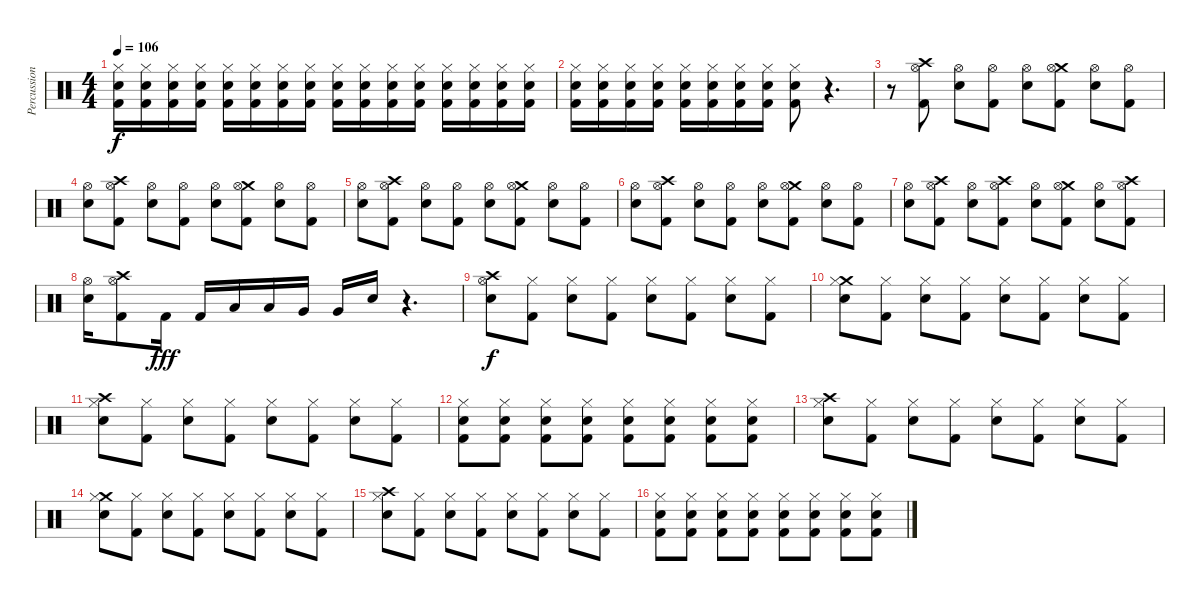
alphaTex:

\track ("Percussion" "Percussion") {instrument percussion}
\staff {score}
\articulation defaults
\ts (4 4)
\tempo 106
\clef neutral
\ks c
("Hi-Hat (closed)" "Electric Snare (hit)" "Kick (hit) 2").16{dy f volume 4} ("Hi-Hat (closed)" "Electric Snare (hit)" "Kick (hit) 2").16{volume 13} ("Hi-Hat (closed)" "Electric Snare (hit)" "Kick (hit) 2").16 ("Hi-Hat (closed)" "Electric Snare (hit)" "Kick (hit) 2").16 ("Hi-Hat (closed)" "Electric Snare (hit)" "Kick (hit) 2").16 ("Hi-Hat (closed)" "Electric Snare (hit)" "Kick (hit) 2").16 ("Hi-Hat (closed)" "Electric Snare (hit)" "Kick (hit) 2").16 ("Hi-Hat (closed)" "Electric Snare (hit)" "Kick (hit) 2").16 ("Hi-Hat (closed)" "Electric Snare (hit)" "Kick (hit) 2").16 ("Hi-Hat (closed)" "Electric Snare (hit)" "Kick (hit) 2").16 ("Hi-Hat (closed)" "Electric Snare (hit)" "Kick (hit) 2").16 ("Hi-Hat (closed)" "Electric Snare (hit)" "Kick (hit) 2").16 ("Hi-Hat (closed)" "Electric Snare (hit)" "Kick (hit) 2").16 ("Hi-Hat (closed)" "Electric Snare (hit)" "Kick (hit) 2").16 ("Hi-Hat (closed)" "Electric Snare (hit)" "Kick (hit) 2").16 ("Hi-Hat (closed)" "Electric Snare (hit)" "Kick (hit) 2").16 |
("Hi-Hat (closed)" "Electric Snare (hit)" "Kick (hit) 2").16 ("Hi-Hat (closed)" "Electric Snare (hit)" "Kick (hit) 2").16 ("Hi-Hat (closed)" "Electric Snare (hit)" "Kick (hit) 2").16 ("Hi-Hat (closed)" "Electric Snare (hit)" "Kick (hit) 2").16 ("Hi-Hat (closed)" "Electric Snare (hit)" "Kick (hit) 2").16 ("Hi-Hat (closed)" "Electric Snare (hit)" "Kick (hit) 2").16 ("Hi-Hat (closed)" "Electric Snare (hit)" "Kick (hit) 2").16 ("Hi-Hat (closed)" "Electric Snare (hit)" "Kick (hit) 2").16 ("Hi-Hat (closed)" "Electric Snare (hit)" "Kick (hit) 2").8 r.4{d} |
r.8 ("Crash high (hit)" "Hi-Hat (open)" "Kick (hit) 2").8 ("Hi-Hat (open)" "Electric Snare (hit)").8 ("Hi-Hat (open)" "Kick (hit) 2").8 ("Hi-Hat (open)" "Electric Snare (hit)").8 ("Crash medium (hit)" "Hi-Hat (open)" "Kick (hit) 2").8 ("Hi-Hat (open)" "Electric Snare (hit)").8 ("Hi-Hat (open)" "Kick (hit) 2").8 |
("Hi-Hat (open)" "Electric Snare (hit)").8 ("Crash high (hit)" "Hi-Hat (open)" "Kick (hit) 2").8 ("Hi-Hat (open)" "Electric Snare (hit)").8 ("Hi-Hat (open)" "Kick (hit) 2").8 ("Hi-Hat (open)" "Electric Snare (hit)").8 ("Crash medium (hit)" "Hi-Hat (open)" "Kick (hit) 2").8 ("Hi-Hat (open)" "Electric Snare (hit)").8 ("Hi-Hat (open)" "Kick (hit) 2").8 |
("Hi-Hat (open)" "Electric Snare (hit)").8 ("Crash high (hit)" "Hi-Hat (open)" "Kick (hit) 2").8 ("Hi-Hat (open)" "Electric Snare (hit)").8 ("Hi-Hat (open)" "Kick (hit) 2").8 ("Hi-Hat (open)" "Electric Snare (hit)").8 ("Crash medium (hit)" "Hi-Hat (open)" "Kick (hit) 2").8 ("Hi-Hat (open)" "Electric Snare (hit)").8 ("Hi-Hat (open)" "Kick (hit) 2").8 |
("Hi-Hat (open)" "Electric Snare (hit)").8 ("Crash high (hit)" "Hi-Hat (open)" "Kick (hit) 2").8 ("Hi-Hat (open)" "Electric Snare (hit)").8 ("Hi-Hat (open)" "Kick (hit) 2").8 ("Hi-Hat (open)" "Electric Snare (hit)").8 ("Crash medium (hit)" "Hi-Hat (open)" "Kick (hit) 2").8 ("Hi-Hat (open)" "Electric Snare (hit)").8 ("Hi-Hat (open)" "Kick (hit) 2").8 |
("Hi-Hat (open)" "Electric Snare (hit)").8 ("Crash high (hit)" "Hi-Hat (open)" "Kick (hit) 2").8 ("Hi-Hat (open)" "Electric Snare (hit)").8 ("Crash high (hit)" "Hi-Hat (open)" "Kick (hit) 2").8 ("Hi-Hat (open)" "Electric Snare (hit)").8 ("Crash medium (hit)" "Hi-Hat (open)" "Kick (hit) 2").8 ("Hi-Hat (open)" "Electric Snare (hit)").8 ("Crash high (hit)" "Hi-Hat (open)" "Kick (hit) 2").8 |
("Hi-Hat (open)" "Electric Snare (hit)").16 ("Crash high (hit)" "Hi-Hat (open)" "Kick (hit) 2").8 "Kick (hit) 2".16{dy fff} "Kick (hit) 2".16 "Low Floor Tom (hit)".16 "Low Floor Tom (hit)".16 "Very Low Tom (hit)".16 "Very Low Tom (hit)".16 "Electric Snare (hit)".16 r.4{d} |
("Crash high (hit)" "Hi-Hat (open)" "Electric Snare (hit)").8{dy f} ("Hi-Hat (closed)" "Kick (hit) 2").8 ("Hi-Hat (closed)" "Electric Snare (hit)").8 ("Hi-Hat (closed)" "Kick (hit) 2").8 ("Hi-Hat (closed)" "Electric Snare (hit)").8 ("Hi-Hat (closed)" "Kick (hit) 2").8 ("Hi-Hat (closed)" "Electric Snare (hit)").8 ("Hi-Hat (closed)" "Kick (hit) 2").8 |
("Crash medium (hit)" "Hi-Hat (closed)" "Electric Snare (hit)").8 ("Hi-Hat (closed)" "Kick (hit) 2").8 ("Hi-Hat (closed)" "Electric Snare (hit)").8 ("Hi-Hat (closed)" "Kick (hit) 2").8 ("Hi-Hat (closed)" "Electric Snare (hit)").8 ("Hi-Hat (closed)" "Kick (hit) 2").8 ("Hi-Hat (closed)" "Electric Snare (hit)").8 ("Hi-Hat (closed)" "Kick (hit) 2").8 |
("Crash high (hit)" "Hi-Hat (closed)" "Electric Snare (hit)").8 ("Hi-Hat (closed)" "Kick (hit) 2").8 ("Hi-Hat (closed)" "Electric Snare (hit)").8 ("Hi-Hat (closed)" "Kick (hit) 2").8 ("Hi-Hat (closed)" "Electric Snare (hit)").8 ("Hi-Hat (closed)" "Kick (hit) 2").8 ("Hi-Hat (closed)" "Electric Snare (hit)").8 ("Hi-Hat (closed)" "Kick (hit) 2").8 |
("Hi-Hat (closed)" "Electric Snare (hit)" "Kick (hit) 2").8 ("Hi-Hat (closed)" "Electric Snare (hit)" "Kick (hit) 2").8 ("Hi-Hat (closed)" "Electric Snare (hit)" "Kick (hit) 2").8 ("Hi-Hat (closed)" "Electric Snare (hit)" "Kick (hit) 2").8 ("Hi-Hat (closed)" "Electric Snare (hit)" "Kick (hit) 2").8 ("Hi-Hat (closed)" "Electric Snare (hit)" "Kick (hit) 2").8 ("Hi-Hat (closed)" "Electric Snare (hit)" "Kick (hit) 2").8 ("Hi-Hat (closed)" "Electric Snare (hit)" "Kick (hit) 2").8 |
("Crash high (hit)" "Hi-Hat (closed)" "Electric Snare (hit)").8 ("Hi-Hat (closed)" "Kick (hit) 2").8 ("Hi-Hat (closed)" "Electric Snare (hit)").8 ("Hi-Hat (closed)" "Kick (hit) 2").8 ("Hi-Hat (closed)" "Electric Snare (hit)").8 ("Hi-Hat (closed)" "Kick (hit) 2").8 ("Hi-Hat (closed)" "Electric Snare (hit)").8 ("Hi-Hat (closed)" "Kick (hit) 2").8 |
("Crash medium (hit)" "Hi-Hat (closed)" "Electric Snare (hit)").8 ("Hi-Hat (closed)" "Kick (hit) 2").8 ("Hi-Hat (closed)" "Electric Snare (hit)").8 ("Hi-Hat (closed)" "Kick (hit) 2").8 ("Hi-Hat (closed)" "Electric Snare (hit)").8 ("Hi-Hat (closed)" "Kick (hit) 2").8 ("Hi-Hat (closed)" "Electric Snare (hit)").8 ("Hi-Hat (closed)" "Kick (hit) 2").8 |
("Crash high (hit)" "Hi-Hat (closed)" "Electric Snare (hit)").8 ("Hi-Hat (closed)" "Kick (hit) 2").8 ("Hi-Hat (closed)" "Electric Snare (hit)").8 ("Hi-Hat (closed)" "Kick (hit) 2").8 ("Hi-Hat (closed)" "Electric Snare (hit)").8 ("Hi-Hat (closed)" "Kick (hit) 2").8 ("Hi-Hat (closed)" "Electric Snare (hit)").8 ("Hi-Hat (closed)" "Kick (hit) 2").8 |
("Hi-Hat (closed)" "Electric Snare (hit)" "Kick (hit) 2").8 ("Hi-Hat (closed)" "Electric Snare (hit)" "Kick (hit) 2").8 ("Hi-Hat (closed)" "Electric Snare (hit)" "Kick (hit) 2").8 ("Hi-Hat (closed)" "Electric Snare (hit)" "Kick (hit) 2").8 ("Hi-Hat (closed)" "Electric Snare (hit)" "Kick (hit) 2").8 ("Hi-Hat (closed)" "Electric Snare (hit)" "Kick (hit) 2").8 ("Hi-Hat (closed)" "Electric Snare (hit)" "Kick (hit) 2").8 ("Hi-Hat (closed)" "Electric Snare (hit)" "Kick (hit) 2").8
